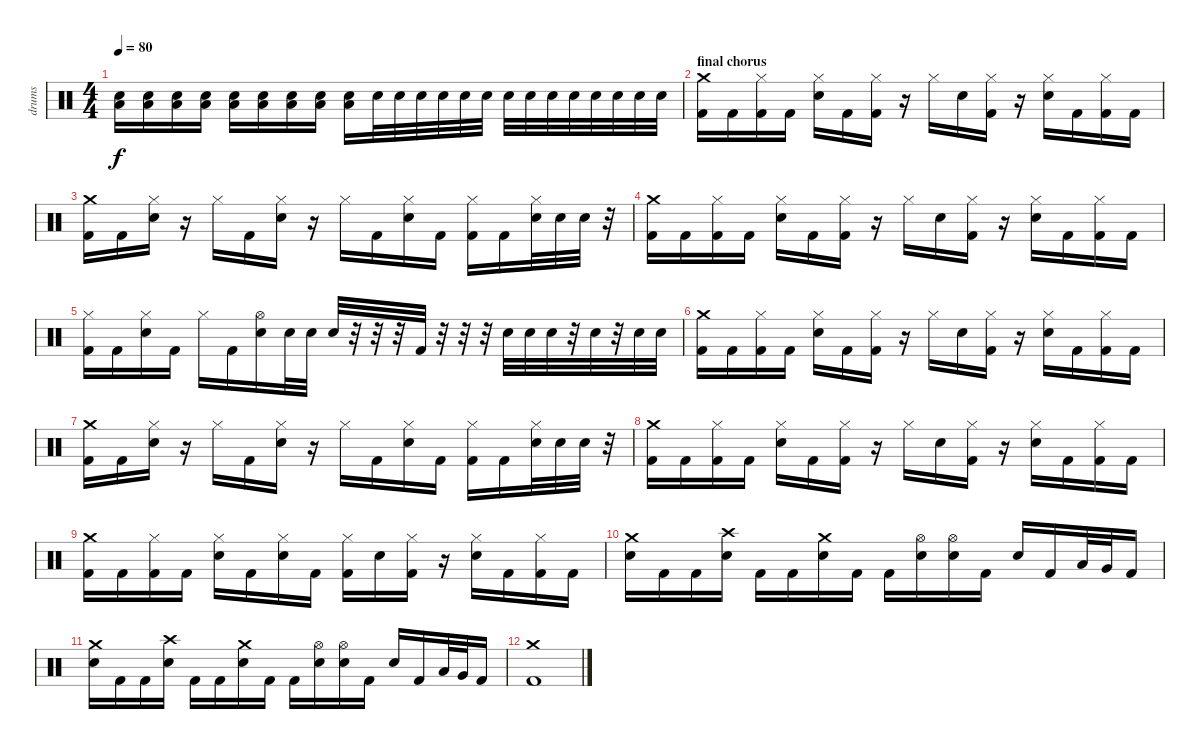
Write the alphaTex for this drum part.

\track ("drums" "drums") {instrument percussion}
\staff {score}
\articulation defaults
\ts (4 4)
\tempo 80
\clef neutral
\ks c
("Electric Snare (hit)"{pm} "Low Floor Tom (hit)").16{dy f} ("Electric Snare (hit)"{pm} "Low Floor Tom (hit)").16 ("Electric Snare (hit)"{pm} "Low Floor Tom (hit)").16 ("Electric Snare (hit)"{pm} "Low Floor Tom (hit)").16 ("Electric Snare (hit)"{pm} "Low Floor Tom (hit)").16 ("Electric Snare (hit)" "Low Floor Tom (hit)").16 ("Electric Snare (hit)" "Low Floor Tom (hit)").16 ("Electric Snare (hit)" "Low Floor Tom (hit)").16 ("Electric Snare (hit)" "Low Floor Tom (hit)").16 "Electric Snare (hit)".32 "Electric Snare (hit)".32 "Electric Snare (hit)".32 "Electric Snare (hit)".32 "Electric Snare (hit)".32 "Electric Snare (hit)".32 "Electric Snare (hit)".32 "Electric Snare (hit)".32 "Electric Snare (hit)".32 "Electric Snare (hit)".32 "Electric Snare (hit)".32 "Electric Snare (hit)".32 "Electric Snare (hit)".32 "Electric Snare (hit)".32 |
\section ("" "final chorus")
("Crash medium (hit)" "Kick (hit) 2").16 "Kick (hit) 2".16 ("Hi-Hat (closed)" "Kick (hit) 2").16 "Kick (hit) 2".16 ("Hi-Hat (closed)" "Electric Snare (hit)").16 "Kick (hit) 2".16 ("Hi-Hat (closed)" "Kick (hit) 2").16 r.16 "Hi-Hat (closed)".16 "Electric Snare (hit)".16 ("Hi-Hat (closed)" "Kick (hit) 2").16 r.16 ("Hi-Hat (closed)" "Electric Snare (hit)").16 "Kick (hit) 2".16 ("Hi-Hat (closed)" "Kick (hit) 2").16 "Kick (hit) 2".16 |
("Crash medium (hit)" "Kick (hit) 2").16 "Kick (hit) 2".16 ("Hi-Hat (closed)" "Electric Snare (hit)").16 r.16 "Hi-Hat (closed)".16 "Kick (hit) 2".16 ("Hi-Hat (closed)" "Electric Snare (hit)").16 r.16 "Hi-Hat (closed)".16 "Kick (hit) 2".16 ("Hi-Hat (closed)" "Electric Snare (hit)").16 "Kick (hit) 2".16 ("Hi-Hat (closed)" "Kick (hit) 2").16 "Kick (hit) 2".16 ("Hi-Hat (closed)" "Electric Snare (hit)").32 "Electric Snare (hit)".32 "Electric Snare (hit)".32 r.32 |
("Crash medium (hit)" "Kick (hit) 2").16 "Kick (hit) 2".16 ("Hi-Hat (closed)" "Kick (hit) 2").16 "Kick (hit) 2".16 ("Hi-Hat (closed)" "Electric Snare (hit)").16 "Kick (hit) 2".16 ("Hi-Hat (closed)" "Kick (hit) 2").16 r.16 "Hi-Hat (closed)".16 "Electric Snare (hit)".16 ("Hi-Hat (closed)" "Kick (hit) 2").16 r.16 ("Hi-Hat (closed)" "Electric Snare (hit)").16 "Kick (hit) 2".16 ("Hi-Hat (closed)" "Kick (hit) 2").16 "Kick (hit) 2".16 |
("Hi-Hat (closed)" "Kick (hit) 2").16 "Kick (hit) 2".16 ("Hi-Hat (closed)" "Electric Snare (hit)").16 "Kick (hit) 2".16 "Hi-Hat (closed)".16 "Kick (hit) 2".16 ("Hi-Hat (open)" "Electric Snare (hit)").16 "Electric Snare (hit)".32 "Electric Snare (hit)".32 "Electric Snare (hit)".32 r.32 r.32 r.32 "Kick (hit) 2".32 r.32 r.32 r.32 "Electric Snare (hit)".32 "Electric Snare (hit)".32 "Electric Snare (hit)".32 r.32 "Electric Snare (hit)".32 r.32 "Electric Snare (hit)".32 "Electric Snare (hit)".32 |
("Crash medium (hit)" "Kick (hit) 2").16 "Kick (hit) 2".16 ("Hi-Hat (closed)" "Kick (hit) 2").16 "Kick (hit) 2".16 ("Hi-Hat (closed)" "Electric Snare (hit)").16 "Kick (hit) 2".16 ("Hi-Hat (closed)" "Kick (hit) 2").16 r.16 "Hi-Hat (closed)".16 "Electric Snare (hit)".16 ("Hi-Hat (closed)" "Kick (hit) 2").16 r.16 ("Hi-Hat (closed)" "Electric Snare (hit)").16 "Kick (hit) 2".16 ("Hi-Hat (closed)" "Kick (hit) 2").16 "Kick (hit) 2".16 |
("Crash medium (hit)" "Kick (hit) 2").16 "Kick (hit) 2".16 ("Hi-Hat (closed)" "Electric Snare (hit)").16 r.16 "Hi-Hat (closed)".16 "Kick (hit) 2".16 ("Hi-Hat (closed)" "Electric Snare (hit)").16 r.16 "Hi-Hat (closed)".16 "Kick (hit) 2".16 ("Hi-Hat (closed)" "Electric Snare (hit)").16 "Kick (hit) 2".16 ("Hi-Hat (closed)" "Kick (hit) 2").16 "Kick (hit) 2".16 ("Hi-Hat (closed)" "Electric Snare (hit)").32 "Electric Snare (hit)".32 "Electric Snare (hit)".32 r.32 |
("Crash medium (hit)" "Kick (hit) 2").16 "Kick (hit) 2".16 ("Hi-Hat (closed)" "Kick (hit) 2").16 "Kick (hit) 2".16 ("Hi-Hat (closed)" "Electric Snare (hit)").16 "Kick (hit) 2".16 ("Hi-Hat (closed)" "Kick (hit) 2").16 r.16 "Hi-Hat (closed)".16 "Electric Snare (hit)".16 ("Hi-Hat (closed)" "Kick (hit) 2").16 r.16 ("Hi-Hat (closed)" "Electric Snare (hit)").16 "Kick (hit) 2".16 ("Hi-Hat (closed)" "Kick (hit) 2").16 "Kick (hit) 2".16 |
("Crash medium (hit)" "Kick (hit) 2").16 "Kick (hit) 2".16 ("Hi-Hat (closed)" "Kick (hit) 2").16 "Kick (hit) 2".16 ("Hi-Hat (closed)" "Electric Snare (hit)").16 "Kick (hit) 2".16 ("Hi-Hat (closed)" "Electric Snare (hit)").16 "Kick (hit) 2".16 ("Hi-Hat (closed)" "Kick (hit) 2").16 "Electric Snare (hit)".16 ("Hi-Hat (closed)" "Kick (hit) 2").16 r.16 ("Hi-Hat (closed)" "Electric Snare (hit)").16 "Kick (hit) 2".16 ("Hi-Hat (closed)" "Kick (hit) 2").16 "Kick (hit) 2".16 |
("Crash medium (hit)" "Electric Snare (hit)").16 "Kick (hit) 2".16 "Kick (hit) 2".16 ("Crash high (hit)" "Electric Snare (hit)").16 "Kick (hit) 2".16 "Kick (hit) 2".16 ("Crash medium (hit)" "Electric Snare (hit)").16 "Kick (hit) 2".16 "Kick (hit) 2".16 ("Hi-Hat (open)" "Electric Snare (hit)").16 ("Hi-Hat (open)" "Electric Snare (hit)").16 "Kick (hit) 2".16 "Electric Snare (hit)".16 "Kick (hit) 2".16 "Low Floor Tom (hit)".32 "Very Low Tom (hit)".32 "Kick (hit) 2".16 |
("Crash medium (hit)" "Electric Snare (hit)").16 "Kick (hit) 2".16 "Kick (hit) 2".16 ("Crash high (hit)" "Electric Snare (hit)").16 "Kick (hit) 2".16 "Kick (hit) 2".16 ("Crash medium (hit)" "Electric Snare (hit)").16 "Kick (hit) 2".16 "Kick (hit) 2".16 ("Hi-Hat (open)" "Electric Snare (hit)").16 ("Hi-Hat (open)" "Electric Snare (hit)").16 "Kick (hit) 2".16 "Electric Snare (hit)".16 "Kick (hit) 2".16 "Low Floor Tom (hit)".32 "Very Low Tom (hit)".32 "Kick (hit) 2".16 |
("Crash medium (hit)" "Kick (hit) 2").1
